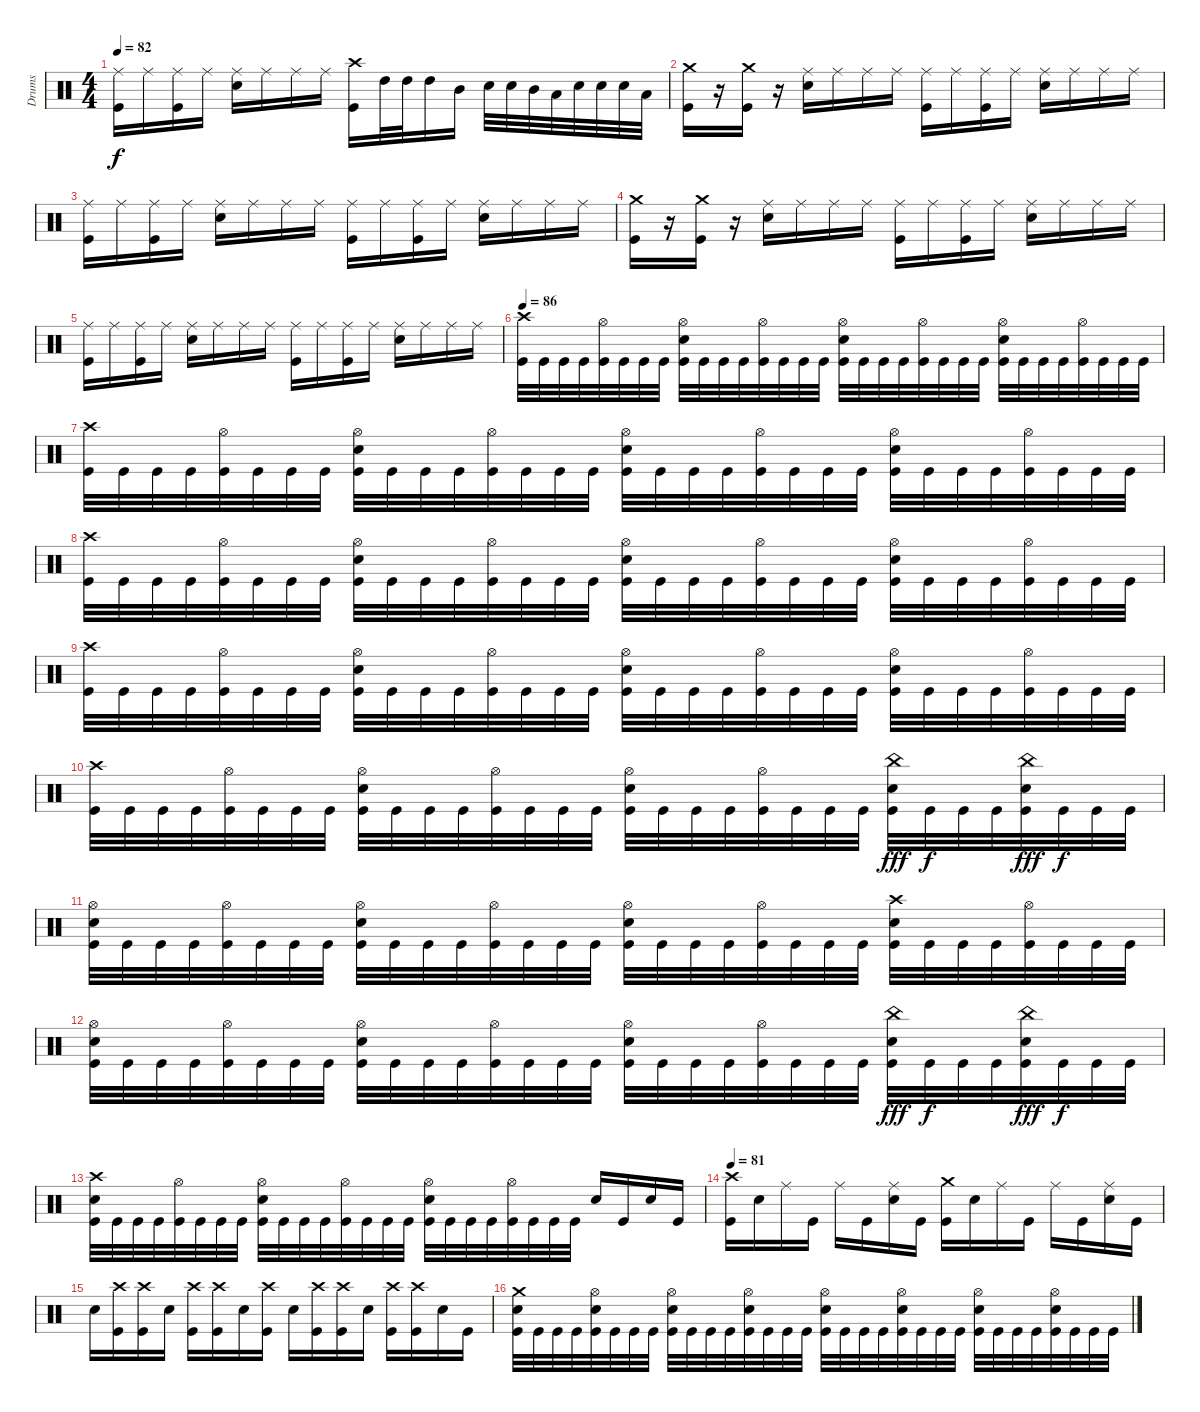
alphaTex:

\track ("Drums" "Drums") {instrument percussion}
\staff {score}
\articulation defaults
\ts (4 4)
\tempo 82
\clef neutral
\ks c
("Ride (middle)" "Kick (hit)").16{dy f} "Ride (middle)".16 ("Ride (middle)" "Kick (hit)").16 "Ride (middle)".16 ("Ride (middle)" "Snare (hit) 2").16 "Ride (middle)".16 "Ride (middle)".16 "Ride (middle)".16 ("Crash high (hit)" "Kick (hit)").16 "High Tom (hit)".32 "High Tom (hit)".32 "High Tom (hit)".16 "Mid Tom (hit)".16 "Snare (hit) 2".32 "Snare (hit) 2".32 "Mid Tom (hit)".32 "Low Tom (hit)".32 "Snare (hit) 2".32 "Snare (hit) 2".32 "Snare (hit) 2".32 "Low Tom (hit)".32 |
("Crash medium (hit)" "Kick (hit)").16 r.16 ("Crash medium (hit)" "Kick (hit)").16 r.16 ("Ride (middle)" "Snare (hit) 2").16 "Ride (middle)".16 "Ride (middle)".16 "Ride (middle)".16 ("Ride (middle)" "Kick (hit)").16 "Ride (middle)".16 ("Ride (middle)" "Kick (hit)").16 "Ride (middle)".16 ("Ride (middle)" "Snare (hit) 2").16 "Ride (middle)".16 "Ride (middle)".16 "Ride (middle)".16 |
("Ride (middle)" "Kick (hit)").16 "Ride (middle)".16 ("Ride (middle)" "Kick (hit)").16 "Ride (middle)".16 ("Ride (middle)" "Snare (hit) 2").16 "Ride (middle)".16 "Ride (middle)".16 "Ride (middle)".16 ("Ride (middle)" "Kick (hit)").16 "Ride (middle)".16 ("Ride (middle)" "Kick (hit)").16 "Ride (middle)".16 ("Ride (middle)" "Snare (hit) 2").16 "Ride (middle)".16 "Ride (middle)".16 "Ride (middle)".16 |
("Crash medium (hit)" "Kick (hit)").16 r.16 ("Crash medium (hit)" "Kick (hit)").16 r.16 ("Ride (middle)" "Snare (hit) 2").16 "Ride (middle)".16 "Ride (middle)".16 "Ride (middle)".16 ("Ride (middle)" "Kick (hit)").16 "Ride (middle)".16 ("Ride (middle)" "Kick (hit)").16 "Ride (middle)".16 ("Ride (middle)" "Snare (hit) 2").16 "Ride (middle)".16 "Ride (middle)".16 "Ride (middle)".16 |
("Ride (middle)" "Kick (hit)").16 "Ride (middle)".16 ("Ride (middle)" "Kick (hit)").16 "Ride (middle)".16 ("Ride (middle)" "Snare (hit) 2").16 "Ride (middle)".16 "Ride (middle)".16 "Ride (middle)".16 ("Ride (middle)" "Kick (hit)").16 "Ride (middle)".16 ("Ride (middle)" "Kick (hit)").16 "Ride (middle)".16 ("Ride (middle)" "Snare (hit) 2").16 "Ride (middle)".16 "Ride (middle)".16 "Ride (middle)".16 |
\tempo 86
("Crash high (hit)" "Kick (hit)").32 "Kick (hit)".32 "Kick (hit)".32 "Kick (hit)".32 ("Hi-Hat (open)" "Kick (hit)").32 "Kick (hit)".32 "Kick (hit)".32 "Kick (hit)".32 ("Hi-Hat (open)" "Snare (hit) 2" "Kick (hit)").32 "Kick (hit)".32 "Kick (hit)".32 "Kick (hit)".32 ("Hi-Hat (open)" "Kick (hit)").32 "Kick (hit)".32 "Kick (hit)".32 "Kick (hit)".32 ("Hi-Hat (open)" "Snare (hit) 2" "Kick (hit)").32 "Kick (hit)".32 "Kick (hit)".32 "Kick (hit)".32 ("Hi-Hat (open)" "Kick (hit)").32 "Kick (hit)".32 "Kick (hit)".32 "Kick (hit)".32 ("Hi-Hat (open)" "Snare (hit) 2" "Kick (hit)").32 "Kick (hit)".32 "Kick (hit)".32 "Kick (hit)".32 ("Hi-Hat (open)" "Kick (hit)").32 "Kick (hit)".32 "Kick (hit)".32 "Kick (hit)".32 |
("Crash high (hit)" "Kick (hit)").32 "Kick (hit)".32 "Kick (hit)".32 "Kick (hit)".32 ("Hi-Hat (open)" "Kick (hit)").32 "Kick (hit)".32 "Kick (hit)".32 "Kick (hit)".32 ("Hi-Hat (open)" "Snare (hit) 2" "Kick (hit)").32 "Kick (hit)".32 "Kick (hit)".32 "Kick (hit)".32 ("Hi-Hat (open)" "Kick (hit)").32 "Kick (hit)".32 "Kick (hit)".32 "Kick (hit)".32 ("Hi-Hat (open)" "Snare (hit) 2" "Kick (hit)").32 "Kick (hit)".32 "Kick (hit)".32 "Kick (hit)".32 ("Hi-Hat (open)" "Kick (hit)").32 "Kick (hit)".32 "Kick (hit)".32 "Kick (hit)".32 ("Hi-Hat (open)" "Snare (hit) 2" "Kick (hit)").32 "Kick (hit)".32 "Kick (hit)".32 "Kick (hit)".32 ("Hi-Hat (open)" "Kick (hit)").32 "Kick (hit)".32 "Kick (hit)".32 "Kick (hit)".32 |
("Crash high (hit)" "Kick (hit)").32 "Kick (hit)".32 "Kick (hit)".32 "Kick (hit)".32 ("Hi-Hat (open)" "Kick (hit)").32 "Kick (hit)".32 "Kick (hit)".32 "Kick (hit)".32 ("Hi-Hat (open)" "Snare (hit) 2" "Kick (hit)").32 "Kick (hit)".32 "Kick (hit)".32 "Kick (hit)".32 ("Hi-Hat (open)" "Kick (hit)").32 "Kick (hit)".32 "Kick (hit)".32 "Kick (hit)".32 ("Hi-Hat (open)" "Snare (hit) 2" "Kick (hit)").32 "Kick (hit)".32 "Kick (hit)".32 "Kick (hit)".32 ("Hi-Hat (open)" "Kick (hit)").32 "Kick (hit)".32 "Kick (hit)".32 "Kick (hit)".32 ("Hi-Hat (open)" "Snare (hit) 2" "Kick (hit)").32 "Kick (hit)".32 "Kick (hit)".32 "Kick (hit)".32 ("Hi-Hat (open)" "Kick (hit)").32 "Kick (hit)".32 "Kick (hit)".32 "Kick (hit)".32 |
("Crash high (hit)" "Kick (hit)").32 "Kick (hit)".32 "Kick (hit)".32 "Kick (hit)".32 ("Hi-Hat (open)" "Kick (hit)").32 "Kick (hit)".32 "Kick (hit)".32 "Kick (hit)".32 ("Hi-Hat (open)" "Snare (hit) 2" "Kick (hit)").32 "Kick (hit)".32 "Kick (hit)".32 "Kick (hit)".32 ("Hi-Hat (open)" "Kick (hit)").32 "Kick (hit)".32 "Kick (hit)".32 "Kick (hit)".32 ("Hi-Hat (open)" "Snare (hit) 2" "Kick (hit)").32 "Kick (hit)".32 "Kick (hit)".32 "Kick (hit)".32 ("Hi-Hat (open)" "Kick (hit)").32 "Kick (hit)".32 "Kick (hit)".32 "Kick (hit)".32 ("Hi-Hat (open)" "Snare (hit) 2" "Kick (hit)").32 "Kick (hit)".32 "Kick (hit)".32 "Kick (hit)".32 ("Hi-Hat (open)" "Kick (hit)").32 "Kick (hit)".32 "Kick (hit)".32 "Kick (hit)".32 |
("Crash high (hit)" "Kick (hit)").32 "Kick (hit)".32 "Kick (hit)".32 "Kick (hit)".32 ("Hi-Hat (open)" "Kick (hit)").32 "Kick (hit)".32 "Kick (hit)".32 "Kick (hit)".32 ("Hi-Hat (open)" "Snare (hit) 2" "Kick (hit)").32 "Kick (hit)".32 "Kick (hit)".32 "Kick (hit)".32 ("Hi-Hat (open)" "Kick (hit)").32 "Kick (hit)".32 "Kick (hit)".32 "Kick (hit)".32 ("Hi-Hat (open)" "Snare (hit) 2" "Kick (hit)").32 "Kick (hit)".32 "Kick (hit)".32 "Kick (hit)".32 ("Hi-Hat (open)" "Kick (hit)").32 "Kick (hit)".32 "Kick (hit)".32 "Kick (hit)".32 ("China (hit)" "Snare (hit) 2" "Kick (hit)").32{dy fff} "Kick (hit)".32{dy f} "Kick (hit)".32 "Kick (hit)".32 ("China (hit)" "Snare (hit) 2" "Kick (hit)").32{dy fff} "Kick (hit)".32{dy f} "Kick (hit)".32 "Kick (hit)".32 |
("Hi-Hat (open)" "Snare (hit) 2" "Kick (hit)").32 "Kick (hit)".32 "Kick (hit)".32 "Kick (hit)".32 ("Hi-Hat (open)" "Kick (hit)").32 "Kick (hit)".32 "Kick (hit)".32 "Kick (hit)".32 ("Hi-Hat (open)" "Snare (hit) 2" "Kick (hit)").32 "Kick (hit)".32 "Kick (hit)".32 "Kick (hit)".32 ("Hi-Hat (open)" "Kick (hit)").32 "Kick (hit)".32 "Kick (hit)".32 "Kick (hit)".32 ("Hi-Hat (open)" "Snare (hit) 2" "Kick (hit)").32 "Kick (hit)".32 "Kick (hit)".32 "Kick (hit)".32 ("Hi-Hat (open)" "Kick (hit)").32 "Kick (hit)".32 "Kick (hit)".32 "Kick (hit)".32 ("Crash high (hit)" "Snare (hit) 2" "Kick (hit)").32 "Kick (hit)".32 "Kick (hit)".32 "Kick (hit)".32 ("Hi-Hat (open)" "Kick (hit)").32 "Kick (hit)".32 "Kick (hit)".32 "Kick (hit)".32 |
("Hi-Hat (open)" "Snare (hit) 2" "Kick (hit)").32 "Kick (hit)".32 "Kick (hit)".32 "Kick (hit)".32 ("Hi-Hat (open)" "Kick (hit)").32 "Kick (hit)".32 "Kick (hit)".32 "Kick (hit)".32 ("Hi-Hat (open)" "Snare (hit) 2" "Kick (hit)").32 "Kick (hit)".32 "Kick (hit)".32 "Kick (hit)".32 ("Hi-Hat (open)" "Kick (hit)").32 "Kick (hit)".32 "Kick (hit)".32 "Kick (hit)".32 ("Hi-Hat (open)" "Snare (hit) 2" "Kick (hit)").32 "Kick (hit)".32 "Kick (hit)".32 "Kick (hit)".32 ("Hi-Hat (open)" "Kick (hit)").32 "Kick (hit)".32 "Kick (hit)".32 "Kick (hit)".32 ("China (hit)" "Snare (hit) 2" "Kick (hit)").32{dy fff} "Kick (hit)".32{dy f} "Kick (hit)".32 "Kick (hit)".32 ("China (hit)" "Snare (hit) 2" "Kick (hit)").32{dy fff} "Kick (hit)".32{dy f} "Kick (hit)".32 "Kick (hit)".32 |
("Crash high (hit)" "Snare (hit) 2" "Kick (hit)").32 "Kick (hit)".32 "Kick (hit)".32 "Kick (hit)".32 ("Hi-Hat (open)" "Kick (hit)").32 "Kick (hit)".32 "Kick (hit)".32 "Kick (hit)".32 ("Hi-Hat (open)" "Snare (hit) 2" "Kick (hit)").32 "Kick (hit)".32 "Kick (hit)".32 "Kick (hit)".32 ("Hi-Hat (open)" "Kick (hit)").32 "Kick (hit)".32 "Kick (hit)".32 "Kick (hit)".32 ("Hi-Hat (open)" "Snare (hit) 2" "Kick (hit)").32 "Kick (hit)".32 "Kick (hit)".32 "Kick (hit)".32 ("Hi-Hat (open)" "Kick (hit)").32 "Kick (hit)".32 "Kick (hit)".32 "Kick (hit)".32 "Snare (hit) 2".16 "Kick (hit)".16 "Snare (hit) 2".16 "Kick (hit)".16 |
\tempo 81
("Crash high (hit)" "Kick (hit)").16 "Snare (hit) 2".16 "Ride (middle)".16 "Kick (hit)".16 "Ride (middle)".16 "Kick (hit)".16 ("Ride (middle)" "Snare (hit) 2").16 "Kick (hit)".16 ("Crash medium (hit)" "Kick (hit)").16 "Snare (hit) 2".16 "Ride (middle)".16 "Kick (hit)".16 "Ride (middle)".16 "Kick (hit)".16 ("Ride (middle)" "Snare (hit) 2").16 "Kick (hit)".16 |
"Snare (hit) 2".16 ("Crash high (hit)" "Kick (hit)").16 ("Crash high (hit)" "Kick (hit)").16 "Snare (hit) 2".16 ("Crash high (hit)" "Kick (hit)").16 ("Crash high (hit)" "Kick (hit)").16 "Snare (hit) 2".16 ("Crash high (hit)" "Kick (hit)").16 "Snare (hit) 2".16 ("Crash high (hit)" "Kick (hit)").16 ("Crash high (hit)" "Kick (hit)").16 "Snare (hit) 2".16 ("Crash high (hit)" "Kick (hit)").16 ("Crash high (hit)" "Kick (hit)").16 "Snare (hit) 2".16 "Kick (hit)".16 |
("Crash medium (hit)" "Snare (hit) 2" "Kick (hit)").32 "Kick (hit)".32 "Kick (hit)".32 "Kick (hit)".32 ("Hi-Hat (open)" "Snare (hit) 2" "Kick (hit)").32 "Kick (hit)".32 "Kick (hit)".32 "Kick (hit)".32 ("Hi-Hat (open)" "Snare (hit) 2" "Kick (hit)").32 "Kick (hit)".32 "Kick (hit)".32 "Kick (hit)".32 ("Hi-Hat (open)" "Snare (hit) 2" "Kick (hit)").32 "Kick (hit)".32 "Kick (hit)".32 "Kick (hit)".32 ("Hi-Hat (open)" "Snare (hit) 2" "Kick (hit)").32 "Kick (hit)".32 "Kick (hit)".32 "Kick (hit)".32 ("Hi-Hat (open)" "Snare (hit) 2" "Kick (hit)").32 "Kick (hit)".32 "Kick (hit)".32 "Kick (hit)".32 ("Hi-Hat (open)" "Snare (hit) 2" "Kick (hit)").32 "Kick (hit)".32 "Kick (hit)".32 "Kick (hit)".32 ("Hi-Hat (open)" "Snare (hit) 2" "Kick (hit)").32 "Kick (hit)".32 "Kick (hit)".32 "Kick (hit)".32
